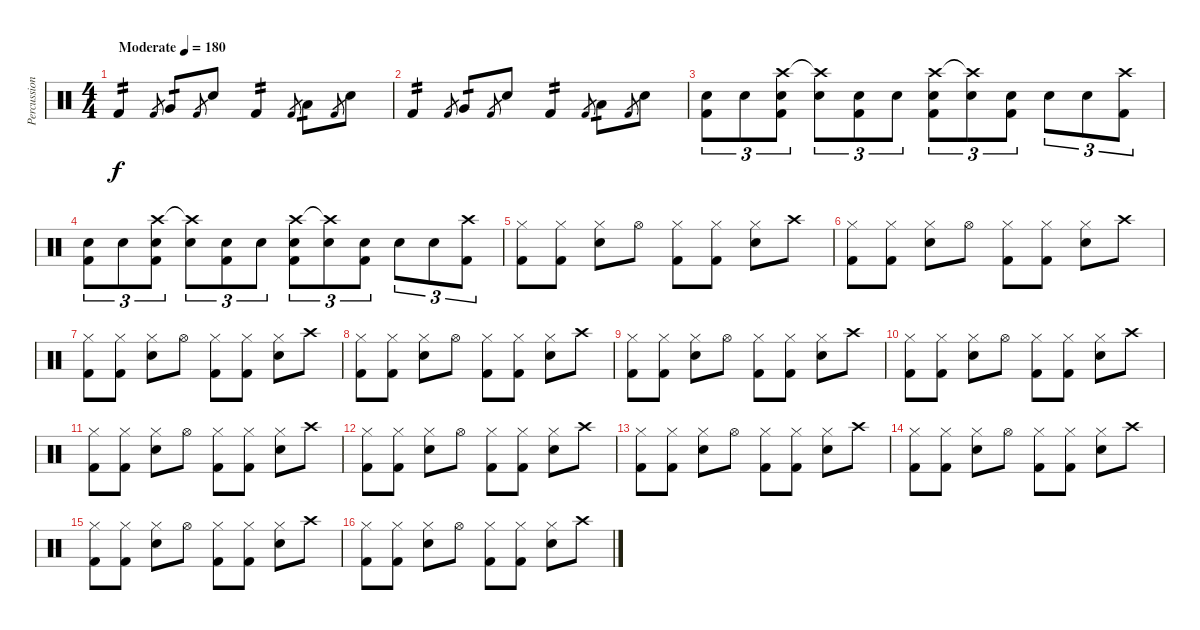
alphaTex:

\track ("Percussion" "Percussion") {instrument percussion}
\staff {score}
\articulation defaults
\ts (4 4)
\tempo (180 "Moderate")
\clef neutral
\ks c "Kick (hit) 2".4{tp 2 dy f} "Kick (hit) 2".8{gr} "Very Low Tom (hit)".8{tp 1} "Kick (hit) 2".8{gr} "Snare (hit) 2".8 "Kick (hit) 2".4{tp 2} "Kick (hit) 2".8{gr} "Low Tom (hit)".8{tp 1} "Kick (hit) 2".8{gr} "Snare (hit) 2".8
|
"Kick (hit) 2".4{tp 2} "Kick (hit) 2".8{gr} "Very Low Tom (hit)".8{tp 1} "Kick (hit) 2".8{gr} "Snare (hit) 2".8 "Kick (hit) 2".4{tp 2} "Kick (hit) 2".8{gr} "Low Tom (hit)".8{tp 1} "Kick (hit) 2".8{gr} "Snare (hit) 2".8 |
("Snare (hit) 2" "Kick (hit) 2").8{tu (3 2)} "Snare (hit) 2".8{tu (3 2)} ("Crash high (hit)" "Snare (hit) 2" "Kick (hit) 2").8{tu (3 2)} ("Crash high (hit)"{t} "Snare (hit) 2").8{tu (3 2)} ("Snare (hit) 2" "Kick (hit) 2").8{tu (3 2)} "Snare (hit) 2".8{tu (3 2)} ("Crash high (hit)" "Snare (hit) 2" "Kick (hit) 2").8{tu (3 2)} ("Crash high (hit)"{t} "Snare (hit) 2").8{tu (3 2)} ("Snare (hit) 2" "Kick (hit) 2").8{tu (3 2)} "Snare (hit) 2".8{tu (3 2)} "Snare (hit) 2".8{tu (3 2)} ("Crash high (hit)" "Kick (hit) 2").8{tu (3 2)} |
("Snare (hit) 2" "Kick (hit) 2").8{tu (3 2)} "Snare (hit) 2".8{tu (3 2)} ("Crash high (hit)" "Snare (hit) 2" "Kick (hit) 2").8{tu (3 2)} ("Crash high (hit)"{t} "Snare (hit) 2").8{tu (3 2)} ("Snare (hit) 2" "Kick (hit) 2").8{tu (3 2)} "Snare (hit) 2".8{tu (3 2)} ("Crash high (hit)" "Snare (hit) 2" "Kick (hit) 2").8{tu (3 2)} ("Crash high (hit)"{t} "Snare (hit) 2").8{tu (3 2)} ("Snare (hit) 2" "Kick (hit) 2").8{tu (3 2)} "Snare (hit) 2".8{tu (3 2)} "Snare (hit) 2".8{tu (3 2)} ("Crash high (hit)" "Kick (hit) 2").8{tu (3 2)} |
("Hi-Hat (closed)" "Kick (hit) 2").8 ("Hi-Hat (closed)" "Kick (hit) 2").8 ("Hi-Hat (closed)" "Snare (hit) 2").8 "Hi-Hat (open)".8 ("Hi-Hat (closed)" "Kick (hit) 2").8 ("Hi-Hat (closed)" "Kick (hit) 2").8 ("Hi-Hat (closed)" "Snare (hit) 2").8 "Crash high (hit)".8 |
("Hi-Hat (closed)" "Kick (hit) 2").8 ("Hi-Hat (closed)" "Kick (hit) 2").8 ("Hi-Hat (closed)" "Snare (hit) 2").8 "Hi-Hat (open)".8 ("Hi-Hat (closed)" "Kick (hit) 2").8 ("Hi-Hat (closed)" "Kick (hit) 2").8 ("Hi-Hat (closed)" "Snare (hit) 2").8 "Crash high (hit)".8 |
("Hi-Hat (closed)" "Kick (hit) 2").8 ("Hi-Hat (closed)" "Kick (hit) 2").8 ("Hi-Hat (closed)" "Snare (hit) 2").8 "Hi-Hat (open)".8 ("Hi-Hat (closed)" "Kick (hit) 2").8 ("Hi-Hat (closed)" "Kick (hit) 2").8 ("Hi-Hat (closed)" "Snare (hit) 2").8 "Crash high (hit)".8 |
("Hi-Hat (closed)" "Kick (hit) 2").8 ("Hi-Hat (closed)" "Kick (hit) 2").8 ("Hi-Hat (closed)" "Snare (hit) 2").8 "Hi-Hat (open)".8 ("Hi-Hat (closed)" "Kick (hit) 2").8 ("Hi-Hat (closed)" "Kick (hit) 2").8 ("Hi-Hat (closed)" "Snare (hit) 2").8 "Crash high (hit)".8 |
("Hi-Hat (closed)" "Kick (hit) 2").8 ("Hi-Hat (closed)" "Kick (hit) 2").8 ("Hi-Hat (closed)" "Snare (hit) 2").8 "Hi-Hat (open)".8 ("Hi-Hat (closed)" "Kick (hit) 2").8 ("Hi-Hat (closed)" "Kick (hit) 2").8 ("Hi-Hat (closed)" "Snare (hit) 2").8 "Crash high (hit)".8 |
("Hi-Hat (closed)" "Kick (hit) 2").8 ("Hi-Hat (closed)" "Kick (hit) 2").8 ("Hi-Hat (closed)" "Snare (hit) 2").8 "Hi-Hat (open)".8 ("Hi-Hat (closed)" "Kick (hit) 2").8 ("Hi-Hat (closed)" "Kick (hit) 2").8 ("Hi-Hat (closed)" "Snare (hit) 2").8 "Crash high (hit)".8 |
("Hi-Hat (closed)" "Kick (hit) 2").8 ("Hi-Hat (closed)" "Kick (hit) 2").8 ("Hi-Hat (closed)" "Snare (hit) 2").8 "Hi-Hat (open)".8 ("Hi-Hat (closed)" "Kick (hit) 2").8 ("Hi-Hat (closed)" "Kick (hit) 2").8 ("Hi-Hat (closed)" "Snare (hit) 2").8 "Crash high (hit)".8 |
("Hi-Hat (closed)" "Kick (hit) 2").8 ("Hi-Hat (closed)" "Kick (hit) 2").8 ("Hi-Hat (closed)" "Snare (hit) 2").8 "Hi-Hat (open)".8 ("Hi-Hat (closed)" "Kick (hit) 2").8 ("Hi-Hat (closed)" "Kick (hit) 2").8 ("Hi-Hat (closed)" "Snare (hit) 2").8 "Crash high (hit)".8 |
("Hi-Hat (closed)" "Kick (hit) 2").8 ("Hi-Hat (closed)" "Kick (hit) 2").8 ("Hi-Hat (closed)" "Snare (hit) 2").8 "Hi-Hat (open)".8 ("Hi-Hat (closed)" "Kick (hit) 2").8 ("Hi-Hat (closed)" "Kick (hit) 2").8 ("Hi-Hat (closed)" "Snare (hit) 2").8 "Crash high (hit)".8 |
("Hi-Hat (closed)" "Kick (hit) 2").8 ("Hi-Hat (closed)" "Kick (hit) 2").8 ("Hi-Hat (closed)" "Snare (hit) 2").8 "Hi-Hat (open)".8 ("Hi-Hat (closed)" "Kick (hit) 2").8 ("Hi-Hat (closed)" "Kick (hit) 2").8 ("Hi-Hat (closed)" "Snare (hit) 2").8 "Crash high (hit)".8 |
("Hi-Hat (closed)" "Kick (hit) 2").8 ("Hi-Hat (closed)" "Kick (hit) 2").8 ("Hi-Hat (closed)" "Snare (hit) 2").8 "Hi-Hat (open)".8 ("Hi-Hat (closed)" "Kick (hit) 2").8 ("Hi-Hat (closed)" "Kick (hit) 2").8 ("Hi-Hat (closed)" "Snare (hit) 2").8 "Crash high (hit)".8 |
("Hi-Hat (closed)" "Kick (hit) 2").8 ("Hi-Hat (closed)" "Kick (hit) 2").8 ("Hi-Hat (closed)" "Snare (hit) 2").8 "Hi-Hat (open)".8 ("Hi-Hat (closed)" "Kick (hit) 2").8 ("Hi-Hat (closed)" "Kick (hit) 2").8 ("Hi-Hat (closed)" "Snare (hit) 2").8 "Crash high (hit)".8
